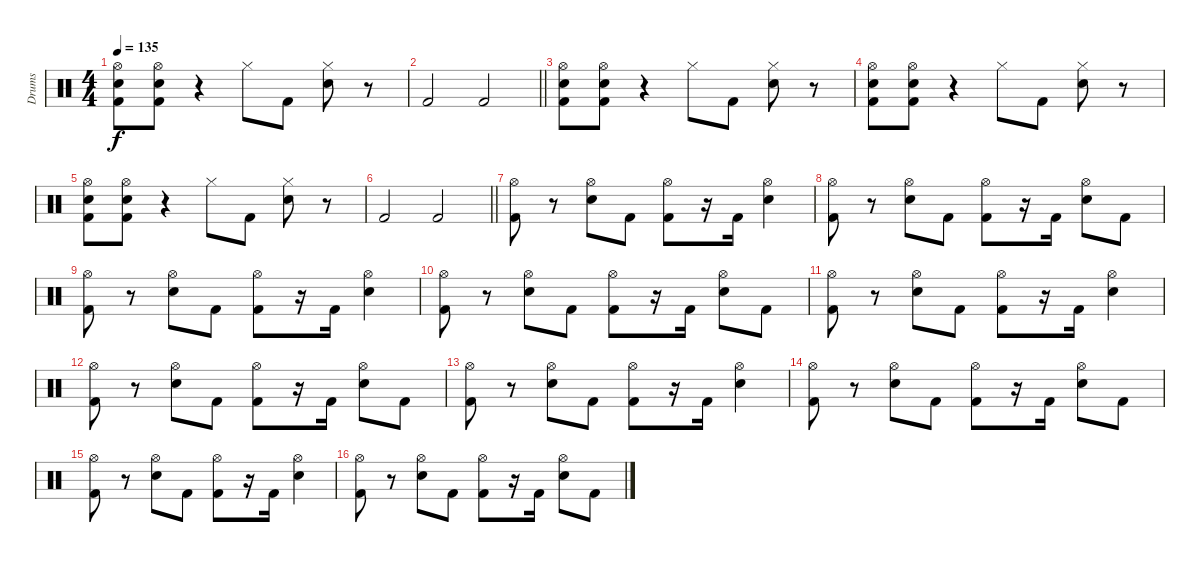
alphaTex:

\track ("Drums" "Drums") {instrument percussion}
\staff {score}
\articulation defaults
\ts (4 4)
\tempo 135
\clef neutral
\ks c
("Hi-Hat (open)" "Snare (hit) 2" "Kick (hit) 2").8{dy f} ("Hi-Hat (open)" "Snare (hit) 2" "Kick (hit) 2").8 r.4 "Hi-Hat (closed)".8 "Kick (hit) 2".8 ("Hi-Hat (closed)" "Snare (hit) 2").8 r.8 |
\barLineRight lightlight "Kick (hit) 2".2 "Kick (hit) 2".2
|
("Hi-Hat (open)" "Snare (hit) 2" "Kick (hit) 2").8 ("Hi-Hat (open)" "Snare (hit) 2" "Kick (hit) 2").8 r.4 "Hi-Hat (closed)".8 "Kick (hit) 2".8 ("Hi-Hat (closed)" "Snare (hit) 2").8 r.8 |
("Hi-Hat (open)" "Snare (hit) 2" "Kick (hit) 2").8 ("Hi-Hat (open)" "Snare (hit) 2" "Kick (hit) 2").8 r.4 "Hi-Hat (closed)".8 "Kick (hit) 2".8 ("Hi-Hat (closed)" "Snare (hit) 2").8 r.8 |
("Hi-Hat (open)" "Snare (hit) 2" "Kick (hit) 2").8 ("Hi-Hat (open)" "Snare (hit) 2" "Kick (hit) 2").8 r.4 "Hi-Hat (closed)".8 "Kick (hit) 2".8 ("Hi-Hat (closed)" "Snare (hit) 2").8 r.8 |
\barLineRight lightlight "Kick (hit) 2".2 "Kick (hit) 2".2
|
("Hi-Hat (open)" "Kick (hit) 2").8 r.8 ("Hi-Hat (open)" "Snare (hit) 2").8 "Kick (hit) 2".8 ("Hi-Hat (open)" "Kick (hit) 2").8 r.16 "Kick (hit) 2".16 ("Hi-Hat (open)" "Snare (hit) 2").4 |
("Hi-Hat (open)" "Kick (hit) 2").8 r.8 ("Hi-Hat (open)" "Snare (hit) 2").8 "Kick (hit) 2".8 ("Hi-Hat (open)" "Kick (hit) 2").8 r.16 "Kick (hit) 2".16 ("Hi-Hat (open)" "Snare (hit) 2").8 "Kick (hit) 2".8 |
("Hi-Hat (open)" "Kick (hit) 2").8 r.8 ("Hi-Hat (open)" "Snare (hit) 2").8 "Kick (hit) 2".8 ("Hi-Hat (open)" "Kick (hit) 2").8 r.16 "Kick (hit) 2".16 ("Hi-Hat (open)" "Snare (hit) 2").4 |
("Hi-Hat (open)" "Kick (hit) 2").8 r.8 ("Hi-Hat (open)" "Snare (hit) 2").8 "Kick (hit) 2".8 ("Hi-Hat (open)" "Kick (hit) 2").8 r.16 "Kick (hit) 2".16 ("Hi-Hat (open)" "Snare (hit) 2").8 "Kick (hit) 2".8 |
("Hi-Hat (open)" "Kick (hit) 2").8 r.8 ("Hi-Hat (open)" "Snare (hit) 2").8 "Kick (hit) 2".8 ("Hi-Hat (open)" "Kick (hit) 2").8 r.16 "Kick (hit) 2".16 ("Hi-Hat (open)" "Snare (hit) 2").4 |
("Hi-Hat (open)" "Kick (hit) 2").8 r.8 ("Hi-Hat (open)" "Snare (hit) 2").8 "Kick (hit) 2".8 ("Hi-Hat (open)" "Kick (hit) 2").8 r.16 "Kick (hit) 2".16 ("Hi-Hat (open)" "Snare (hit) 2").8 "Kick (hit) 2".8 |
("Hi-Hat (open)" "Kick (hit) 2").8 r.8 ("Hi-Hat (open)" "Snare (hit) 2").8 "Kick (hit) 2".8 ("Hi-Hat (open)" "Kick (hit) 2").8 r.16 "Kick (hit) 2".16 ("Hi-Hat (open)" "Snare (hit) 2").4 |
("Hi-Hat (open)" "Kick (hit) 2").8 r.8 ("Hi-Hat (open)" "Snare (hit) 2").8 "Kick (hit) 2".8 ("Hi-Hat (open)" "Kick (hit) 2").8 r.16 "Kick (hit) 2".16 ("Hi-Hat (open)" "Snare (hit) 2").8 "Kick (hit) 2".8 |
("Hi-Hat (open)" "Kick (hit) 2").8 r.8 ("Hi-Hat (open)" "Snare (hit) 2").8 "Kick (hit) 2".8 ("Hi-Hat (open)" "Kick (hit) 2").8 r.16 "Kick (hit) 2".16 ("Hi-Hat (open)" "Snare (hit) 2").4 |
("Hi-Hat (open)" "Kick (hit) 2").8 r.8 ("Hi-Hat (open)" "Snare (hit) 2").8 "Kick (hit) 2".8 ("Hi-Hat (open)" "Kick (hit) 2").8 r.16 "Kick (hit) 2".16 ("Hi-Hat (open)" "Snare (hit) 2").8 "Kick (hit) 2".8
